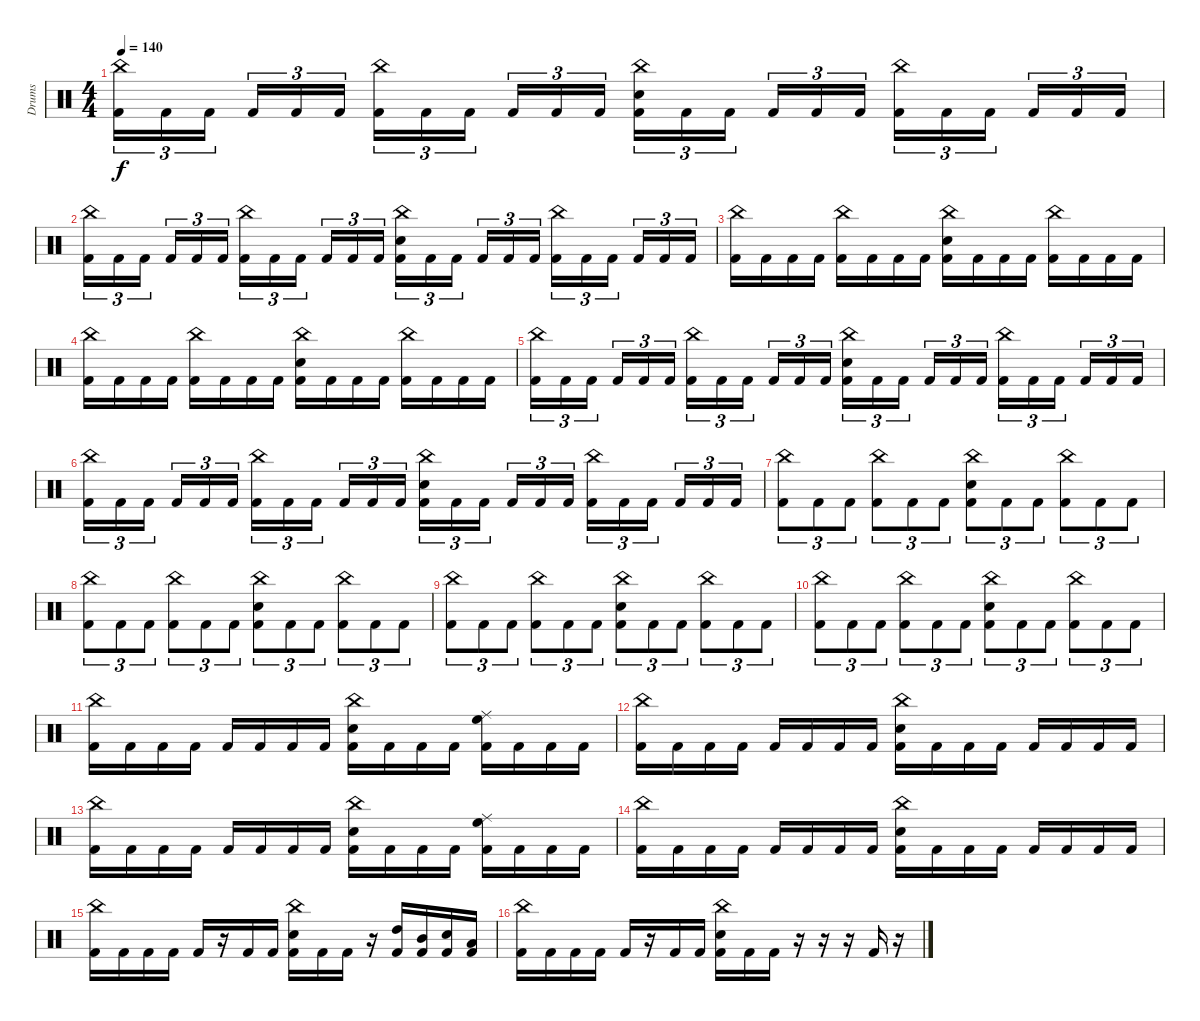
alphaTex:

\track ("Drums" "Drums") {instrument percussion}
\staff {score}
\articulation defaults
\ts (4 4)
\tempo 140
\clef neutral
\ks c
("China (hit)" "Kick (hit) 2").16{tu (3 2) dy f} "Kick (hit) 2".16{tu (3 2)} "Kick (hit) 2".16{tu (3 2) beam splitsecondary} "Kick (hit) 2".16{tu (3 2)} "Kick (hit) 2".16{tu (3 2)} "Kick (hit) 2".16{tu (3 2)} ("China (hit)" "Kick (hit) 2").16{tu (3 2)} "Kick (hit) 2".16{tu (3 2)} "Kick (hit) 2".16{tu (3 2) beam splitsecondary} "Kick (hit) 2".16{tu (3 2)} "Kick (hit) 2".16{tu (3 2)} "Kick (hit) 2".16{tu (3 2)} ("China (hit)" "Snare (hit) 2" "Kick (hit) 2").16{tu (3 2)} "Kick (hit) 2".16{tu (3 2)} "Kick (hit) 2".16{tu (3 2) beam splitsecondary} "Kick (hit) 2".16{tu (3 2)} "Kick (hit) 2".16{tu (3 2)} "Kick (hit) 2".16{tu (3 2)} ("China (hit)" "Kick (hit) 2").16{tu (3 2)} "Kick (hit) 2".16{tu (3 2)} "Kick (hit) 2".16{tu (3 2) beam splitsecondary} "Kick (hit) 2".16{tu (3 2)} "Kick (hit) 2".16{tu (3 2)} "Kick (hit) 2".16{tu (3 2)} |
("China (hit)" "Kick (hit) 2").16{tu (3 2)} "Kick (hit) 2".16{tu (3 2)} "Kick (hit) 2".16{tu (3 2) beam splitsecondary} "Kick (hit) 2".16{tu (3 2)} "Kick (hit) 2".16{tu (3 2)} "Kick (hit) 2".16{tu (3 2)} ("China (hit)" "Kick (hit) 2").16{tu (3 2)} "Kick (hit) 2".16{tu (3 2)} "Kick (hit) 2".16{tu (3 2) beam splitsecondary} "Kick (hit) 2".16{tu (3 2)} "Kick (hit) 2".16{tu (3 2)} "Kick (hit) 2".16{tu (3 2)} ("China (hit)" "Snare (hit) 2" "Kick (hit) 2").16{tu (3 2)} "Kick (hit) 2".16{tu (3 2)} "Kick (hit) 2".16{tu (3 2) beam splitsecondary} "Kick (hit) 2".16{tu (3 2)} "Kick (hit) 2".16{tu (3 2)} "Kick (hit) 2".16{tu (3 2)} ("China (hit)" "Kick (hit) 2").16{tu (3 2)} "Kick (hit) 2".16{tu (3 2)} "Kick (hit) 2".16{tu (3 2) beam splitsecondary} "Kick (hit) 2".16{tu (3 2)} "Kick (hit) 2".16{tu (3 2)} "Kick (hit) 2".16{tu (3 2)} |
("China (hit)" "Kick (hit) 2").16 "Kick (hit) 2".16 "Kick (hit) 2".16 "Kick (hit) 2".16 ("China (hit)" "Kick (hit) 2").16 "Kick (hit) 2".16 "Kick (hit) 2".16 "Kick (hit) 2".16 ("China (hit)" "Snare (hit) 2" "Kick (hit) 2").16 "Kick (hit) 2".16 "Kick (hit) 2".16 "Kick (hit) 2".16 ("China (hit)" "Kick (hit) 2").16 "Kick (hit) 2".16 "Kick (hit) 2".16 "Kick (hit) 2".16 |
("China (hit)" "Kick (hit) 2").16 "Kick (hit) 2".16 "Kick (hit) 2".16 "Kick (hit) 2".16 ("China (hit)" "Kick (hit) 2").16 "Kick (hit) 2".16 "Kick (hit) 2".16 "Kick (hit) 2".16 ("China (hit)" "Snare (hit) 2" "Kick (hit) 2").16 "Kick (hit) 2".16 "Kick (hit) 2".16 "Kick (hit) 2".16 ("China (hit)" "Kick (hit) 2").16 "Kick (hit) 2".16 "Kick (hit) 2".16 "Kick (hit) 2".16 |
("China (hit)" "Kick (hit) 2").16{tu (3 2)} "Kick (hit) 2".16{tu (3 2)} "Kick (hit) 2".16{tu (3 2) beam splitsecondary} "Kick (hit) 2".16{tu (3 2)} "Kick (hit) 2".16{tu (3 2)} "Kick (hit) 2".16{tu (3 2)} ("China (hit)" "Kick (hit) 2").16{tu (3 2)} "Kick (hit) 2".16{tu (3 2)} "Kick (hit) 2".16{tu (3 2) beam splitsecondary} "Kick (hit) 2".16{tu (3 2)} "Kick (hit) 2".16{tu (3 2)} "Kick (hit) 2".16{tu (3 2)} ("China (hit)" "Snare (hit) 2" "Kick (hit) 2").16{tu (3 2)} "Kick (hit) 2".16{tu (3 2)} "Kick (hit) 2".16{tu (3 2) beam splitsecondary} "Kick (hit) 2".16{tu (3 2)} "Kick (hit) 2".16{tu (3 2)} "Kick (hit) 2".16{tu (3 2)} ("China (hit)" "Kick (hit) 2").16{tu (3 2)} "Kick (hit) 2".16{tu (3 2)} "Kick (hit) 2".16{tu (3 2) beam splitsecondary} "Kick (hit) 2".16{tu (3 2)} "Kick (hit) 2".16{tu (3 2)} "Kick (hit) 2".16{tu (3 2)} |
("China (hit)" "Kick (hit) 2").16{tu (3 2)} "Kick (hit) 2".16{tu (3 2)} "Kick (hit) 2".16{tu (3 2) beam splitsecondary} "Kick (hit) 2".16{tu (3 2)} "Kick (hit) 2".16{tu (3 2)} "Kick (hit) 2".16{tu (3 2)} ("China (hit)" "Kick (hit) 2").16{tu (3 2)} "Kick (hit) 2".16{tu (3 2)} "Kick (hit) 2".16{tu (3 2) beam splitsecondary} "Kick (hit) 2".16{tu (3 2)} "Kick (hit) 2".16{tu (3 2)} "Kick (hit) 2".16{tu (3 2)} ("China (hit)" "Snare (hit) 2" "Kick (hit) 2").16{tu (3 2)} "Kick (hit) 2".16{tu (3 2)} "Kick (hit) 2".16{tu (3 2) beam splitsecondary} "Kick (hit) 2".16{tu (3 2)} "Kick (hit) 2".16{tu (3 2)} "Kick (hit) 2".16{tu (3 2)} ("China (hit)" "Kick (hit) 2").16{tu (3 2)} "Kick (hit) 2".16{tu (3 2)} "Kick (hit) 2".16{tu (3 2) beam splitsecondary} "Kick (hit) 2".16{tu (3 2)} "Kick (hit) 2".16{tu (3 2)} "Kick (hit) 2".16{tu (3 2)} |
("China (hit)" "Kick (hit) 2").8{tu (3 2)} "Kick (hit) 2".8{tu (3 2)} "Kick (hit) 2".8{tu (3 2)} ("China (hit)" "Kick (hit) 2").8{tu (3 2)} "Kick (hit) 2".8{tu (3 2)} "Kick (hit) 2".8{tu (3 2)} ("China (hit)" "Snare (hit) 2" "Kick (hit) 2").8{tu (3 2)} "Kick (hit) 2".8{tu (3 2)} "Kick (hit) 2".8{tu (3 2)} ("China (hit)" "Kick (hit) 2").8{tu (3 2)} "Kick (hit) 2".8{tu (3 2)} "Kick (hit) 2".8{tu (3 2)} |
("China (hit)" "Kick (hit) 2").8{tu (3 2)} "Kick (hit) 2".8{tu (3 2)} "Kick (hit) 2".8{tu (3 2)} ("China (hit)" "Kick (hit) 2").8{tu (3 2)} "Kick (hit) 2".8{tu (3 2)} "Kick (hit) 2".8{tu (3 2)} ("China (hit)" "Snare (hit) 2" "Kick (hit) 2").8{tu (3 2)} "Kick (hit) 2".8{tu (3 2)} "Kick (hit) 2".8{tu (3 2)} ("China (hit)" "Kick (hit) 2").8{tu (3 2)} "Kick (hit) 2".8{tu (3 2)} "Kick (hit) 2".8{tu (3 2)} |
("China (hit)" "Kick (hit) 2").8{tu (3 2)} "Kick (hit) 2".8{tu (3 2)} "Kick (hit) 2".8{tu (3 2)} ("China (hit)" "Kick (hit) 2").8{tu (3 2)} "Kick (hit) 2".8{tu (3 2)} "Kick (hit) 2".8{tu (3 2)} ("China (hit)" "Snare (hit) 2" "Kick (hit) 2").8{tu (3 2)} "Kick (hit) 2".8{tu (3 2)} "Kick (hit) 2".8{tu (3 2)} ("China (hit)" "Kick (hit) 2").8{tu (3 2)} "Kick (hit) 2".8{tu (3 2)} "Kick (hit) 2".8{tu (3 2)} |
("China (hit)" "Kick (hit) 2").8{tu (3 2)} "Kick (hit) 2".8{tu (3 2)} "Kick (hit) 2".8{tu (3 2)} ("China (hit)" "Kick (hit) 2").8{tu (3 2)} "Kick (hit) 2".8{tu (3 2)} "Kick (hit) 2".8{tu (3 2)} ("China (hit)" "Snare (hit) 2" "Kick (hit) 2").8{tu (3 2)} "Kick (hit) 2".8{tu (3 2)} "Kick (hit) 2".8{tu (3 2)} ("China (hit)" "Kick (hit) 2").8{tu (3 2)} "Kick (hit) 2".8{tu (3 2)} "Kick (hit) 2".8{tu (3 2)} |
("China (hit)" "Kick (hit) 2").16 "Kick (hit) 2".16 "Kick (hit) 2".16 "Kick (hit) 2".16 "Kick (hit) 2".16 "Kick (hit) 2".16 "Kick (hit) 2".16 "Kick (hit) 2".16 ("China (hit)" "Snare (hit) 2" "Kick (hit) 2").16 "Kick (hit) 2".16 "Kick (hit) 2".16 "Kick (hit) 2".16 ("Ride (middle)" "High Floor Tom (hit)" "Kick (hit) 2").16 "Kick (hit) 2".16 "Kick (hit) 2".16 "Kick (hit) 2".16 |
("China (hit)" "Kick (hit) 2").16 "Kick (hit) 2".16 "Kick (hit) 2".16 "Kick (hit) 2".16 "Kick (hit) 2".16 "Kick (hit) 2".16 "Kick (hit) 2".16 "Kick (hit) 2".16 ("China (hit)" "Snare (hit) 2" "Kick (hit) 2").16 "Kick (hit) 2".16 "Kick (hit) 2".16 "Kick (hit) 2".16 "Kick (hit) 2".16 "Kick (hit) 2".16 "Kick (hit) 2".16 "Kick (hit) 2".16 |
("China (hit)" "Kick (hit) 2").16 "Kick (hit) 2".16 "Kick (hit) 2".16 "Kick (hit) 2".16 "Kick (hit) 2".16 "Kick (hit) 2".16 "Kick (hit) 2".16 "Kick (hit) 2".16 ("China (hit)" "Snare (hit) 2" "Kick (hit) 2").16 "Kick (hit) 2".16 "Kick (hit) 2".16 "Kick (hit) 2".16 ("Ride (middle)" "High Floor Tom (hit)" "Kick (hit) 2").16 "Kick (hit) 2".16 "Kick (hit) 2".16 "Kick (hit) 2".16 |
("China (hit)" "Kick (hit) 2").16 "Kick (hit) 2".16 "Kick (hit) 2".16 "Kick (hit) 2".16 "Kick (hit) 2".16 "Kick (hit) 2".16 "Kick (hit) 2".16 "Kick (hit) 2".16 ("China (hit)" "Snare (hit) 2" "Kick (hit) 2").16 "Kick (hit) 2".16 "Kick (hit) 2".16 "Kick (hit) 2".16 "Kick (hit) 2".16 "Kick (hit) 2".16 "Kick (hit) 2".16 "Kick (hit) 2".16 |
("China (hit)" "Kick (hit) 2").16 "Kick (hit) 2".16 "Kick (hit) 2".16 "Kick (hit) 2".16 "Kick (hit) 2".16 r.16 "Kick (hit) 2".16 "Kick (hit) 2".16 ("China (hit)" "Snare (hit) 2" "Kick (hit) 2").16 "Kick (hit) 2".16 "Kick (hit) 2".16 r.16 ("High Tom (hit)" "Kick (hit) 2").16 ("Mid Tom (hit)" "Kick (hit) 2").16 ("Snare (hit) 2" "Kick (hit) 2").16 ("Low Tom (hit)" "Kick (hit) 2").16 |
("China (hit)" "Kick (hit) 2").16 "Kick (hit) 2".16 "Kick (hit) 2".16 "Kick (hit) 2".16 "Kick (hit) 2".16 r.16 "Kick (hit) 2".16 "Kick (hit) 2".16 ("China (hit)" "Snare (hit) 2" "Kick (hit) 2").16 "Kick (hit) 2".16 "Kick (hit) 2".16 r.16 r.16 r.16 "Kick (hit) 2".16 r.16
